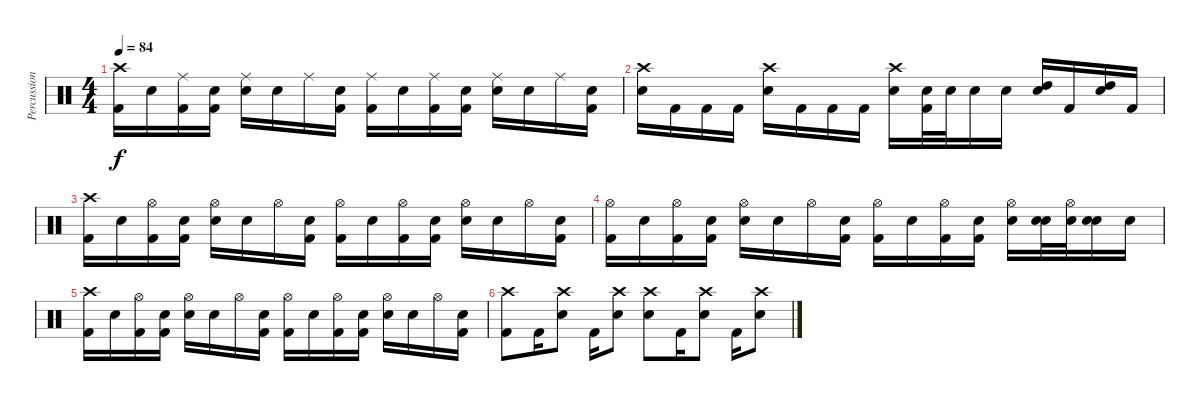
\track ("Percussion" "Percussion") {instrument percussion}
\staff {score}
\articulation defaults
\ts (4 4)
\tempo 84
\clef neutral
\ks c
("Crash high (hit)" "Kick (hit) 2").16{dy f} "Snare (hit)".16 ("Ride (middle)" "Kick (hit) 2").16 ("Snare (hit)" "Kick (hit) 2").16 ("Ride (middle)" "Snare (hit) 2").16 "Snare (hit)".16 "Ride (middle)".16 ("Snare (hit)" "Kick (hit) 2").16 ("Ride (middle)" "Kick (hit) 2").16 "Snare (hit)".16 ("Ride (middle)" "Kick (hit) 2").16 ("Snare (hit)" "Kick (hit) 2").16 ("Ride (middle)" "Snare (hit) 2").16 "Snare (hit)".16 "Ride (middle)".16 ("Snare (hit)" "Kick (hit) 2").16 |
("Crash high (hit)" "Snare (hit) 2").16 "Kick (hit) 2".16 "Kick (hit) 2".16 "Kick (hit) 2".16 ("Crash high (hit)" "Snare (hit) 2").16 "Kick (hit) 2".16 "Kick (hit) 2".16 "Kick (hit) 2".16 ("Crash high (hit)" "Snare (hit) 2").16 ("Snare (hit) 2" "Kick (hit) 2").32 "Snare (hit) 2".32 "Snare (hit) 2".16 "Snare (hit) 2".16 ("High Tom (hit)" "Snare (hit) 2").16 "Kick (hit) 2".16 ("High Tom (hit)" "Snare (hit) 2").16 "Kick (hit) 2".16 |
("Crash high (hit)" "Kick (hit) 2").16 "Snare (hit)".16 ("Hi-Hat (open)" "Kick (hit) 2").16 ("Snare (hit)" "Kick (hit) 2").16 ("Hi-Hat (open)" "Snare (hit) 2").16 "Snare (hit)".16 "Hi-Hat (open)".16 ("Snare (hit)" "Kick (hit) 2").16 ("Hi-Hat (open)" "Kick (hit) 2").16 "Snare (hit)".16 ("Hi-Hat (open)" "Kick (hit) 2").16 ("Snare (hit)" "Kick (hit) 2").16 ("Hi-Hat (open)" "Snare (hit) 2").16 "Snare (hit)".16 "Hi-Hat (open)".16 ("Snare (hit)" "Kick (hit) 2").16 |
("Hi-Hat (open)" "Kick (hit) 2").16 "Snare (hit)".16 ("Hi-Hat (open)" "Kick (hit) 2").16 ("Snare (hit)" "Kick (hit) 2").16 ("Hi-Hat (open)" "Snare (hit) 2").16 "Snare (hit)".16 "Hi-Hat (open)".16 ("Snare (hit)" "Kick (hit) 2").16 ("Hi-Hat (open)" "Kick (hit) 2").16 "Snare (hit)".16 ("Hi-Hat (open)" "Kick (hit) 2").16 ("Snare (hit)" "Kick (hit) 2").16 ("Hi-Hat (open)" "Snare (hit) 2").16 ("Snare (hit)" "Snare (hit) 2").32 ("Hi-Hat (open)" "Snare (hit) 2").32 ("Snare (hit)" "Snare (hit) 2").16 "Snare (hit) 2".16 |
("Crash high (hit)" "Kick (hit) 2").16 "Snare (hit)".16 ("Hi-Hat (open)" "Kick (hit) 2").16 ("Snare (hit)" "Kick (hit) 2").16 ("Hi-Hat (open)" "Snare (hit) 2").16 "Snare (hit)".16 "Hi-Hat (open)".16 ("Snare (hit)" "Kick (hit) 2").16 ("Hi-Hat (open)" "Kick (hit) 2").16 "Snare (hit)".16 ("Hi-Hat (open)" "Kick (hit) 2").16 ("Snare (hit)" "Kick (hit) 2").16 ("Hi-Hat (open)" "Snare (hit) 2").16 "Snare (hit)".16 "Hi-Hat (open)".16 ("Snare (hit)" "Kick (hit) 2").16 |
("Crash high (hit)" "Kick (hit) 2").8 "Kick (hit) 2".16 ("Crash high (hit)" "Snare (hit) 2").8 "Kick (hit) 2".16 ("Crash high (hit)" "Snare (hit) 2").8 ("Crash high (hit)" "Snare (hit) 2").8 "Kick (hit) 2".16 ("Crash high (hit)" "Snare (hit) 2").8 "Kick (hit) 2".16 ("Crash high (hit)" "Snare (hit) 2").8
